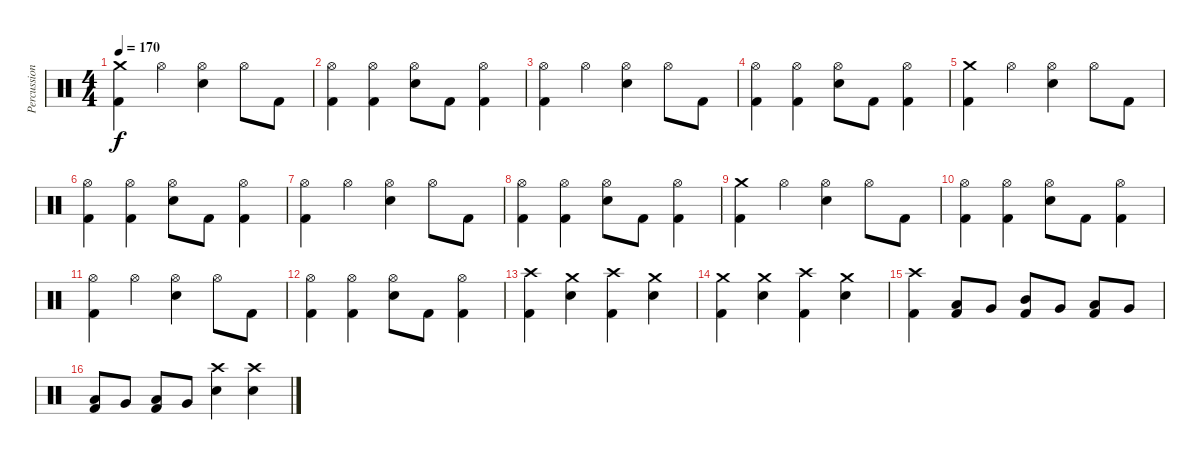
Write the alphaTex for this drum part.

\track ("Percussion" "Percussion") {instrument percussion}
\staff {score}
\articulation defaults
\ts (4 4)
\tempo 170
\clef neutral
\ks c
("Crash medium (hit)" "Kick (hit) 2").4{dy f} "Hi-Hat (open)".4 ("Hi-Hat (open)" "Electric Snare (hit)").4 "Hi-Hat (open)".8 "Kick (hit) 2".8 |
("Hi-Hat (open)" "Kick (hit) 2").4 ("Hi-Hat (open)" "Kick (hit) 2").4 ("Hi-Hat (open)" "Electric Snare (hit)").8 "Kick (hit) 2".8 ("Hi-Hat (open)" "Kick (hit) 2").4 |
("Hi-Hat (open)" "Kick (hit) 2").4 "Hi-Hat (open)".4 ("Hi-Hat (open)" "Electric Snare (hit)").4 "Hi-Hat (open)".8 "Kick (hit) 2".8 |
("Hi-Hat (open)" "Kick (hit) 2").4 ("Hi-Hat (open)" "Kick (hit) 2").4 ("Hi-Hat (open)" "Electric Snare (hit)").8 "Kick (hit) 2".8 ("Hi-Hat (open)" "Kick (hit) 2").4 |
("Crash medium (hit)" "Kick (hit) 2").4 "Hi-Hat (open)".4 ("Hi-Hat (open)" "Electric Snare (hit)").4 "Hi-Hat (open)".8 "Kick (hit) 2".8 |
("Hi-Hat (open)" "Kick (hit) 2").4 ("Hi-Hat (open)" "Kick (hit) 2").4 ("Hi-Hat (open)" "Electric Snare (hit)").8 "Kick (hit) 2".8 ("Hi-Hat (open)" "Kick (hit) 2").4 |
("Hi-Hat (open)" "Kick (hit) 2").4 "Hi-Hat (open)".4 ("Hi-Hat (open)" "Electric Snare (hit)").4 "Hi-Hat (open)".8 "Kick (hit) 2".8 |
("Hi-Hat (open)" "Kick (hit) 2").4 ("Hi-Hat (open)" "Kick (hit) 2").4 ("Hi-Hat (open)" "Electric Snare (hit)").8 "Kick (hit) 2".8 ("Hi-Hat (open)" "Kick (hit) 2").4 |
("Crash medium (hit)" "Kick (hit) 2").4 "Hi-Hat (open)".4 ("Hi-Hat (open)" "Electric Snare (hit)").4 "Hi-Hat (open)".8 "Kick (hit) 2".8 |
("Hi-Hat (open)" "Kick (hit) 2").4 ("Hi-Hat (open)" "Kick (hit) 2").4 ("Hi-Hat (open)" "Electric Snare (hit)").8 "Kick (hit) 2".8 ("Hi-Hat (open)" "Kick (hit) 2").4 |
("Hi-Hat (open)" "Kick (hit) 2").4 "Hi-Hat (open)".4 ("Hi-Hat (open)" "Electric Snare (hit)").4 "Hi-Hat (open)".8 "Kick (hit) 2".8 |
("Hi-Hat (open)" "Kick (hit) 2").4 ("Hi-Hat (open)" "Kick (hit) 2").4 ("Hi-Hat (open)" "Electric Snare (hit)").8 "Kick (hit) 2".8 ("Hi-Hat (open)" "Kick (hit) 2").4 |
("Crash high (hit)" "Kick (hit) 2").4 ("Crash medium (hit)" "Electric Snare (hit)").4 ("Crash high (hit)" "Kick (hit) 2").4 ("Crash medium (hit)" "Electric Snare (hit)").4 |
("Crash medium (hit)" "Kick (hit) 2").4 ("Crash medium (hit)" "Electric Snare (hit)").4 ("Crash high (hit)" "Kick (hit) 2").4 ("Crash medium (hit)" "Electric Snare (hit)").4 |
("Crash high (hit)" "Kick (hit) 2").4 ("Low Tom (hit)" "Kick (hit) 2").8 "Very Low Tom (hit)".8 ("Mid Tom (hit)" "Kick (hit) 2").8 "Very Low Tom (hit)".8 ("Low Tom (hit)" "Kick (hit) 2").8 "Very Low Tom (hit)".8 |
("Low Floor Tom (hit)" "Kick (hit) 2").8 "Very Low Tom (hit)".8 ("Low Floor Tom (hit)" "Kick (hit) 2").8 "Very Low Tom (hit)".8 ("Crash high (hit)" "Electric Snare (hit)").4 ("Crash high (hit)" "Electric Snare (hit)").4
